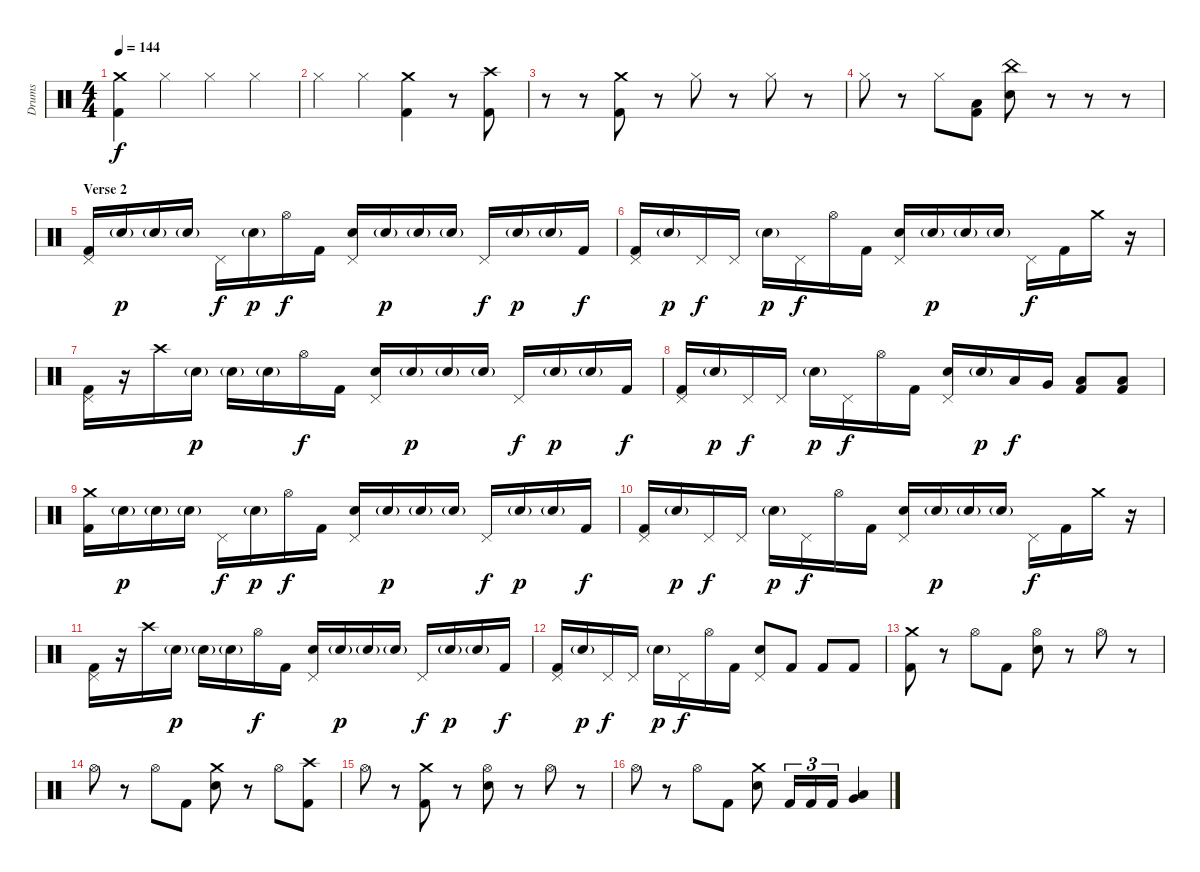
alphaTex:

\track ("Drums" "Drums") {instrument percussion}
\staff {score}
\articulation defaults
\ts (4 4)
\tempo 144
\clef neutral
\ks c
("Crash medium (hit)" "Kick (hit) 2").4{dy f} "Hi-Hat (closed)".4 "Hi-Hat (closed)".4 "Hi-Hat (closed)".4 |
"Hi-Hat (closed)".4 "Hi-Hat (closed)".4 ("Crash medium (hit)" "Kick (hit) 2").4 r.8 ("Crash high (hit)" "Kick (hit) 2").8 |
r.8 r.8 ("Crash medium (hit)" "Kick (hit) 2").8 r.8 "Hi-Hat (closed)".8 r.8 "Hi-Hat (closed)".8 r.8 |
"Hi-Hat (closed)".8 r.8 "Hi-Hat (closed)".8 ("Low Floor Tom (hit)" "Kick (hit) 2").8 ("China (hit)" "Electric Snare (hit)").8 r.8 r.8 r.8 |
\section ("" "Verse 2")
("Pedal Hi-Hat (hit)" "Kick (hit) 2").16 "Snare (hit) 2"{g}.16{dy p} "Snare (hit) 2"{g}.16 "Snare (hit) 2"{g}.16 "Pedal Hi-Hat (hit)".16{dy f} "Snare (hit) 2"{g}.16{dy p} "Hi-Hat (open)".16{dy f} "Kick (hit) 2".16 ("Pedal Hi-Hat (hit)" "Electric Snare (hit)").16 "Snare (hit) 2"{g}.16{dy p} "Snare (hit) 2"{g}.16 "Snare (hit) 2"{g}.16 "Pedal Hi-Hat (hit)".16{dy f} "Snare (hit) 2"{g}.16{dy p} "Snare (hit) 2"{g}.16 "Kick (hit) 2".16{dy f} |
("Pedal Hi-Hat (hit)" "Kick (hit) 2").16 "Snare (hit) 2"{g}.16{dy p} "Pedal Hi-Hat (hit)".16{dy f} "Pedal Hi-Hat (hit)".16 "Snare (hit) 2"{g}.16{dy p} "Pedal Hi-Hat (hit)".16{dy f} "Hi-Hat (open)".16 "Kick (hit) 2".16 ("Pedal Hi-Hat (hit)" "Electric Snare (hit)").16 "Snare (hit) 2"{g}.16{dy p} "Snare (hit) 2"{g}.16 "Snare (hit) 2"{g}.16 "Pedal Hi-Hat (hit)".16{dy f} "Kick (hit) 2".16 "Crash medium (hit)".16 r.16 |
("Pedal Hi-Hat (hit)" "Kick (hit) 2").16 r.16 "Crash high (hit)".16 "Snare (hit) 2"{g}.16{dy p} "Snare (hit) 2"{g}.16 "Snare (hit) 2"{g}.16 "Hi-Hat (open)".16{dy f} "Kick (hit) 2".16 ("Pedal Hi-Hat (hit)" "Electric Snare (hit)").16 "Snare (hit) 2"{g}.16{dy p} "Snare (hit) 2"{g}.16 "Snare (hit) 2"{g}.16 "Pedal Hi-Hat (hit)".16{dy f} "Snare (hit) 2"{g}.16{dy p} "Snare (hit) 2"{g}.16 "Kick (hit) 2".16{dy f} |
("Pedal Hi-Hat (hit)" "Kick (hit) 2").16 "Snare (hit) 2"{g}.16{dy p} "Pedal Hi-Hat (hit)".16{dy f} "Pedal Hi-Hat (hit)".16 "Snare (hit) 2"{g}.16{dy p} "Pedal Hi-Hat (hit)".16{dy f} "Hi-Hat (open)".16 "Kick (hit) 2".16 ("Pedal Hi-Hat (hit)" "Electric Snare (hit)").16 "Snare (hit) 2"{g}.16{dy p} "Low Tom (hit)".16{dy f} "Very Low Tom (hit)".16 ("Low Floor Tom (hit)" "Kick (hit) 2").8 ("Low Floor Tom (hit)" "Kick (hit) 2").8 |
("Crash medium (hit)" "Kick (hit) 2").16 "Snare (hit) 2"{g}.16{dy p} "Snare (hit) 2"{g}.16 "Snare (hit) 2"{g}.16 "Pedal Hi-Hat (hit)".16{dy f} "Snare (hit) 2"{g}.16{dy p} "Hi-Hat (open)".16{dy f} "Kick (hit) 2".16 ("Pedal Hi-Hat (hit)" "Electric Snare (hit)").16 "Snare (hit) 2"{g}.16{dy p} "Snare (hit) 2"{g}.16 "Snare (hit) 2"{g}.16 "Pedal Hi-Hat (hit)".16{dy f} "Snare (hit) 2"{g}.16{dy p} "Snare (hit) 2"{g}.16 "Kick (hit) 2".16{dy f} |
("Pedal Hi-Hat (hit)" "Kick (hit) 2").16 "Snare (hit) 2"{g}.16{dy p} "Pedal Hi-Hat (hit)".16{dy f} "Pedal Hi-Hat (hit)".16 "Snare (hit) 2"{g}.16{dy p} "Pedal Hi-Hat (hit)".16{dy f} "Hi-Hat (open)".16 "Kick (hit) 2".16 ("Pedal Hi-Hat (hit)" "Electric Snare (hit)").16 "Snare (hit) 2"{g}.16{dy p} "Snare (hit) 2"{g}.16 "Snare (hit) 2"{g}.16 "Pedal Hi-Hat (hit)".16{dy f} "Kick (hit) 2".16 "Crash medium (hit)".16 r.16 |
("Pedal Hi-Hat (hit)" "Kick (hit) 2").16 r.16 "Crash high (hit)".16 "Snare (hit) 2"{g}.16{dy p} "Snare (hit) 2"{g}.16 "Snare (hit) 2"{g}.16 "Hi-Hat (open)".16{dy f} "Kick (hit) 2".16 ("Pedal Hi-Hat (hit)" "Electric Snare (hit)").16 "Snare (hit) 2"{g}.16{dy p} "Snare (hit) 2"{g}.16 "Snare (hit) 2"{g}.16 "Pedal Hi-Hat (hit)".16{dy f} "Snare (hit) 2"{g}.16{dy p} "Snare (hit) 2"{g}.16 "Kick (hit) 2".16{dy f} |
("Pedal Hi-Hat (hit)" "Kick (hit) 2").16 "Snare (hit) 2"{g}.16{dy p} "Pedal Hi-Hat (hit)".16{dy f} "Pedal Hi-Hat (hit)".16 "Snare (hit) 2"{g}.16{dy p} "Pedal Hi-Hat (hit)".16{dy f} "Hi-Hat (open)".16 "Kick (hit) 2".16 ("Pedal Hi-Hat (hit)" "Electric Snare (hit)").8 "Kick (hit) 2".8 "Kick (hit) 2".8 "Kick (hit) 2".8 |
("Crash medium (hit)" "Kick (hit) 2").8 r.8 "Hi-Hat (open)".8 "Kick (hit) 2".8 ("Hi-Hat (open)" "Electric Snare (hit)").8 r.8 "Hi-Hat (open)".8 r.8 |
"Hi-Hat (open)".8 r.8 "Hi-Hat (open)".8 "Kick (hit) 2".8 ("Crash medium (hit)" "Electric Snare (hit)").8 r.8 "Hi-Hat (open)".8 ("Crash high (hit)" "Kick (hit) 2").8 |
"Hi-Hat (open)".8 r.8 ("Crash medium (hit)" "Kick (hit) 2").8 r.8 ("Hi-Hat (open)" "Electric Snare (hit)").8 r.8 "Hi-Hat (open)".8 r.8 |
"Hi-Hat (open)".8 r.8 "Hi-Hat (open)".8 "Kick (hit) 2".8 ("Crash medium (hit)" "Electric Snare (hit)").8 "Kick (hit) 2".16{tu (3 2)} "Kick (hit) 2".16{tu (3 2)} "Kick (hit) 2".16{tu (3 2)} ("Low Floor Tom (hit)" "Very Low Tom (hit)").4
